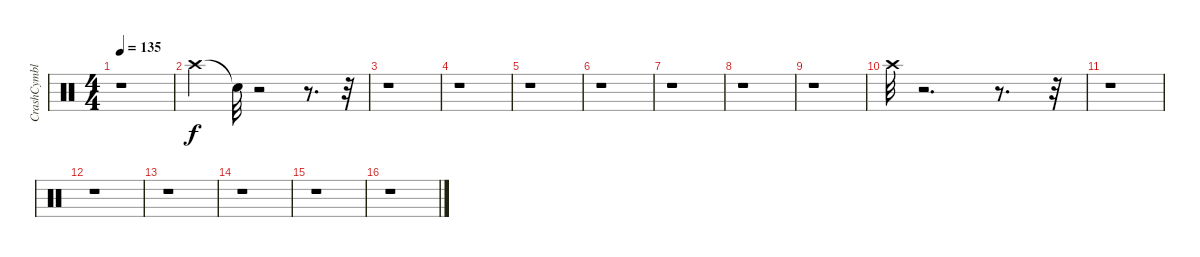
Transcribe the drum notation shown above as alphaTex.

\track ("CrashCymbl" "CrashCymbl") {instrument percussion}
\staff {score}
\articulation defaults
\ts (4 4)
\tempo 135
\clef neutral
\ks c
r.1{dy f} |
"Crash high (hit)".4 "Snare (hit)"{t}.32 r.2 r.8{d} r.32 |
r.1 |
r.1 |
r.1 |
r.1 |
r.1 |
r.1 |
r.1 |
"Crash high (hit)".32 r.2{d} r.8{d} r.32 |
r.1 |
r.1 |
r.1 |
r.1 |
r.1 |
r.1
